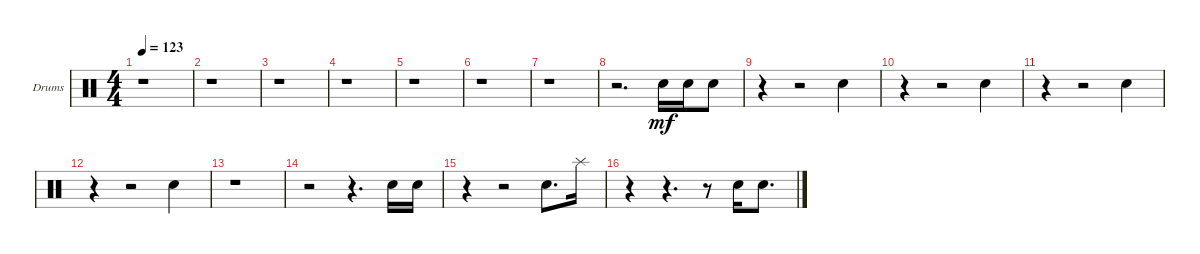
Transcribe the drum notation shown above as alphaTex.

\bracketExtendMode groupsimilarinstruments
\firstSystemTrackNameOrientation horizontal
\otherSystemsTrackNameOrientation horizontal
\track ("Snare Drum" "Drums") {instrument percussion}
\staff {score}
\articulation defaults
\ts (4 4)
\tempo 123
\clef neutral
\ks c
r.1{dy mf} |
r.1 |
r.1 |
r.1 |
r.1 |
r.1 |
r.1 |
r.2{d} "Snare (hit) 2".16 "Snare (hit) 2".16 "Snare (hit) 2".8 |
r.4 r.2 "Snare (hit) 2".4 |
r.4 r.2 "Snare (hit) 2".4 |
r.4 r.2 "Snare (hit) 2".4 |
r.4 r.2 "Snare (hit) 2".4 |
r.1 |
r.2 r.4{d} "Snare (hit) 2".16 "Snare (hit) 2".16 |
r.4 r.2 "Snare (hit) 2".8{d} "Splash (hit)".16 |
r.4 r.4{d} r.8 "Snare (hit) 2".16 "Snare (hit) 2".8{d}
